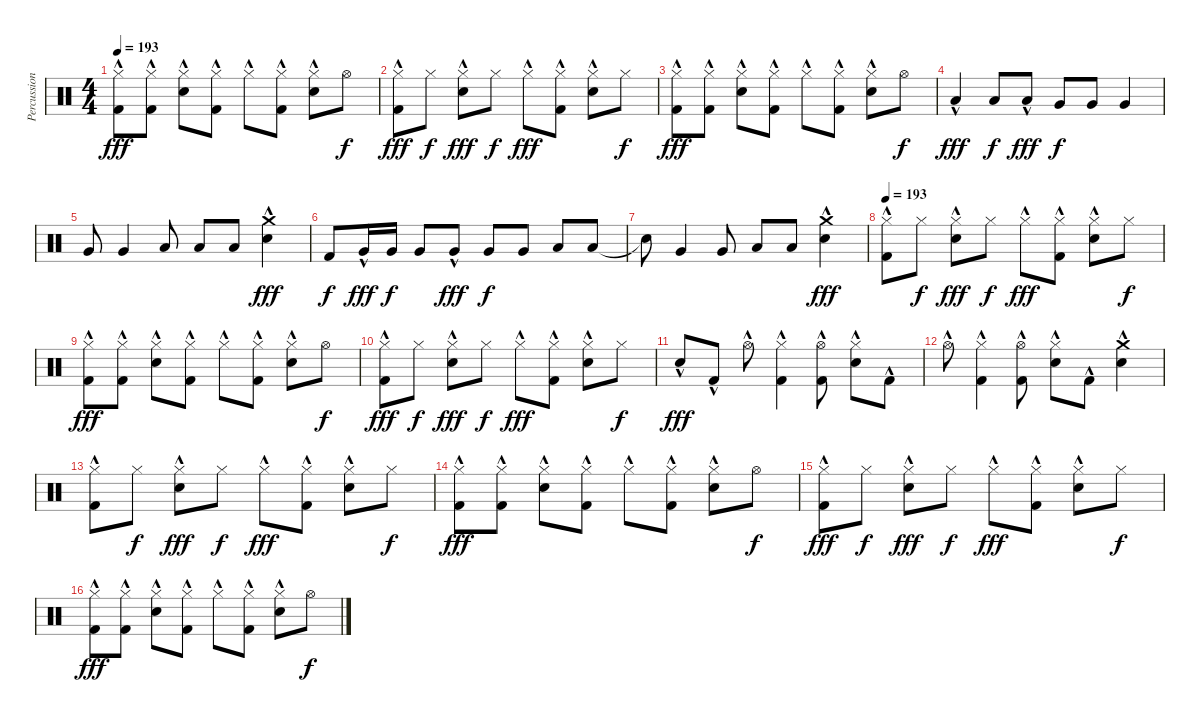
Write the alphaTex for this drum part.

\track ("Percussion" "Percussion") {instrument percussion}
\staff {score}
\articulation defaults
\ts (4 4)
\tempo 193
\clef neutral
\ks c
("Hi-Hat (closed)"{hac} "Kick (hit) 2"{hac}).8{dy fff} ("Hi-Hat (closed)" "Kick (hit) 2"{hac}).8 ("Hi-Hat (closed)"{hac} "Electric Snare (hit)"{hac}).8 ("Hi-Hat (closed)" "Kick (hit) 2"{hac}).8 "Hi-Hat (closed)"{hac}.8 ("Hi-Hat (closed)" "Kick (hit) 2"{hac}).8 ("Hi-Hat (closed)"{hac} "Electric Snare (hit)"{hac}).8 "Hi-Hat (open)".8{dy f} |
("Hi-Hat (closed)"{hac} "Kick (hit) 2"{hac}).8{dy fff} "Hi-Hat (closed)".8{dy f} ("Hi-Hat (closed)"{hac} "Electric Snare (hit)"{hac}).8{dy fff} "Hi-Hat (closed)".8{dy f} "Hi-Hat (closed)"{hac}.8{dy fff} ("Hi-Hat (closed)" "Kick (hit) 2"{hac}).8 ("Hi-Hat (closed)"{hac} "Electric Snare (hit)"{hac}).8 "Hi-Hat (closed)".8{dy f} |
("Hi-Hat (closed)"{hac} "Kick (hit) 2"{hac}).8{dy fff} ("Hi-Hat (closed)" "Kick (hit) 2"{hac}).8 ("Hi-Hat (closed)"{hac} "Electric Snare (hit)"{hac}).8 ("Hi-Hat (closed)" "Kick (hit) 2"{hac}).8 "Hi-Hat (closed)"{hac}.8 ("Hi-Hat (closed)" "Kick (hit) 2"{hac}).8 ("Hi-Hat (closed)"{hac} "Electric Snare (hit)"{hac}).8 "Hi-Hat (open)".8{dy f} |
"Low Tom (hit)"{hac}.4{dy fff} "Low Tom (hit)".8{dy f} "Low Tom (hit)"{hac}.8{dy fff} "Very Low Tom (hit)".8{dy f} "Very Low Tom (hit)".8 "Very Low Tom (hit)".4 |
"Very Low Tom (hit)".8 "Very Low Tom (hit)".4 "Low Floor Tom (hit)".8 "Low Floor Tom (hit)".8 "Low Floor Tom (hit)".8 ("Crash medium (hit)"{hac} "Electric Snare (hit)"{hac}).4{dy fff} |
"Kick (hit) 2".8{dy f} "Very Low Tom (hit)"{hac}.16{dy fff} "Very Low Tom (hit)".16{dy f} "Very Low Tom (hit)".8 "Very Low Tom (hit)"{hac}.8{dy fff} "Very Low Tom (hit)".8{dy f} "Very Low Tom (hit)".8 "Low Floor Tom (hit)".8 "Low Floor Tom (hit)".8 |
"Snare (hit)"{t}.8 "Very Low Tom (hit)".4 "Very Low Tom (hit)".8 "Low Floor Tom (hit)".8 "Low Floor Tom (hit)".8 ("Crash medium (hit)"{hac} "Electric Snare (hit)"{hac}).4{dy fff} |
\tempo 193
("Hi-Hat (closed)"{hac} "Kick (hit) 2"{hac}).8 "Hi-Hat (closed)".8{dy f} ("Hi-Hat (closed)"{hac} "Electric Snare (hit)"{hac}).8{dy fff} "Hi-Hat (closed)".8{dy f} "Hi-Hat (closed)"{hac}.8{dy fff} ("Hi-Hat (closed)" "Kick (hit) 2"{hac}).8 ("Hi-Hat (closed)"{hac} "Electric Snare (hit)"{hac}).8 "Hi-Hat (closed)".8{dy f} |
("Hi-Hat (closed)"{hac} "Kick (hit) 2"{hac}).8{dy fff} ("Hi-Hat (closed)" "Kick (hit) 2"{hac}).8 ("Hi-Hat (closed)"{hac} "Electric Snare (hit)"{hac}).8 ("Hi-Hat (closed)" "Kick (hit) 2"{hac}).8 "Hi-Hat (closed)"{hac}.8 ("Hi-Hat (closed)" "Kick (hit) 2"{hac}).8 ("Hi-Hat (closed)"{hac} "Electric Snare (hit)"{hac}).8 "Hi-Hat (open)".8{dy f} |
("Hi-Hat (closed)"{hac} "Kick (hit) 2"{hac}).8{dy fff} "Hi-Hat (closed)".8{dy f} ("Hi-Hat (closed)"{hac} "Electric Snare (hit)"{hac}).8{dy fff} "Hi-Hat (closed)".8{dy f} "Hi-Hat (closed)"{hac}.8{dy fff} ("Hi-Hat (closed)" "Kick (hit) 2"{hac}).8 ("Hi-Hat (closed)"{hac} "Electric Snare (hit)"{hac}).8 "Hi-Hat (closed)".8{dy f} |
"Electric Snare (hit)"{hac}.8{dy fff} "Kick (hit) 2"{hac}.8 "Hi-Hat (open)"{hac}.8 ("Hi-Hat (closed)"{hac} "Kick (hit) 2"{hac}).4 ("Hi-Hat (open)"{hac} "Kick (hit) 2"{hac}).8 ("Hi-Hat (closed)"{hac} "Electric Snare (hit)"{hac}).8 "Kick (hit) 2"{hac}.8 |
"Hi-Hat (open)"{hac}.8 ("Hi-Hat (closed)"{hac} "Kick (hit) 2"{hac}).4 ("Hi-Hat (open)"{hac} "Kick (hit) 2"{hac}).8 ("Hi-Hat (closed)"{hac} "Electric Snare (hit)"{hac}).8 "Kick (hit) 2"{hac}.8 ("Crash medium (hit)"{hac} "Electric Snare (hit)"{hac}).4 |
("Hi-Hat (closed)"{hac} "Kick (hit) 2"{hac}).8 "Hi-Hat (closed)".8{dy f} ("Hi-Hat (closed)"{hac} "Electric Snare (hit)"{hac}).8{dy fff} "Hi-Hat (closed)".8{dy f} "Hi-Hat (closed)"{hac}.8{dy fff} ("Hi-Hat (closed)" "Kick (hit) 2"{hac}).8 ("Hi-Hat (closed)"{hac} "Electric Snare (hit)"{hac}).8 "Hi-Hat (closed)".8{dy f} |
("Hi-Hat (closed)"{hac} "Kick (hit) 2"{hac}).8{dy fff} ("Hi-Hat (closed)" "Kick (hit) 2"{hac}).8 ("Hi-Hat (closed)"{hac} "Electric Snare (hit)"{hac}).8 ("Hi-Hat (closed)" "Kick (hit) 2"{hac}).8 "Hi-Hat (closed)"{hac}.8 ("Hi-Hat (closed)" "Kick (hit) 2"{hac}).8 ("Hi-Hat (closed)"{hac} "Electric Snare (hit)"{hac}).8 "Hi-Hat (open)".8{dy f} |
("Hi-Hat (closed)"{hac} "Kick (hit) 2"{hac}).8{dy fff} "Hi-Hat (closed)".8{dy f} ("Hi-Hat (closed)"{hac} "Electric Snare (hit)"{hac}).8{dy fff} "Hi-Hat (closed)".8{dy f} "Hi-Hat (closed)"{hac}.8{dy fff} ("Hi-Hat (closed)" "Kick (hit) 2"{hac}).8 ("Hi-Hat (closed)"{hac} "Electric Snare (hit)"{hac}).8 "Hi-Hat (closed)".8{dy f} |
("Hi-Hat (closed)"{hac} "Kick (hit) 2"{hac}).8{dy fff} ("Hi-Hat (closed)" "Kick (hit) 2"{hac}).8 ("Hi-Hat (closed)"{hac} "Electric Snare (hit)"{hac}).8 ("Hi-Hat (closed)" "Kick (hit) 2"{hac}).8 "Hi-Hat (closed)"{hac}.8 ("Hi-Hat (closed)" "Kick (hit) 2"{hac}).8 ("Hi-Hat (closed)"{hac} "Electric Snare (hit)"{hac}).8 "Hi-Hat (open)".8{dy f}
